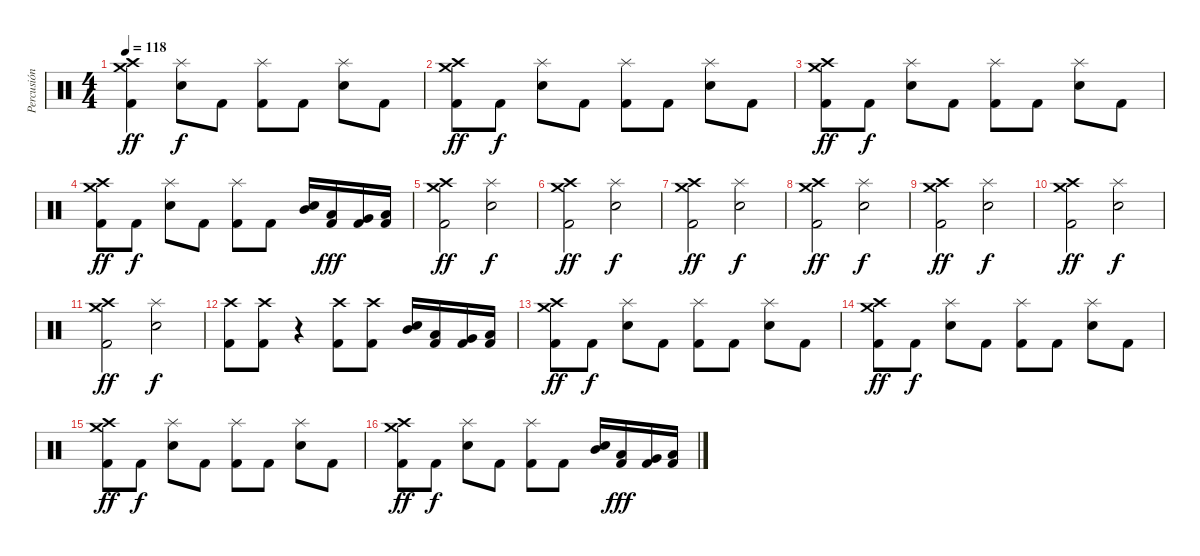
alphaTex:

\track ("Percusión" "Percusión") {instrument percussion}
\staff {score}
\articulation defaults
\ts (4 4)
\tempo 118
\clef neutral
\ks c
("Kick (hit) 2" "Crash medium (hit)" "Crash high (hit)").4{dy ff} ("Snare (hit) 2" "Splash (hit)").8{dy f} "Kick (hit) 2".8 ("Kick (hit) 2" "Splash (hit)").8 "Kick (hit) 2".8 ("Snare (hit) 2" "Splash (hit)").8 "Kick (hit) 2".8 |
("Kick (hit) 2" "Crash medium (hit)" "Crash high (hit)").8{dy ff} "Kick (hit) 2".8{dy f} ("Snare (hit) 2" "Splash (hit)").8 "Kick (hit) 2".8 ("Kick (hit) 2" "Splash (hit)").8 "Kick (hit) 2".8 ("Snare (hit) 2" "Splash (hit)").8 "Kick (hit) 2".8 |
("Kick (hit) 2" "Crash medium (hit)" "Crash high (hit)").8{dy ff} "Kick (hit) 2".8{dy f} ("Snare (hit) 2" "Splash (hit)").8 "Kick (hit) 2".8 ("Kick (hit) 2" "Splash (hit)").8 "Kick (hit) 2".8 ("Snare (hit) 2" "Splash (hit)").8 "Kick (hit) 2".8 |
("Kick (hit) 2" "Crash medium (hit)" "Crash high (hit)").8{dy ff} "Kick (hit) 2".8{dy f} ("Snare (hit) 2" "Splash (hit)").8 "Kick (hit) 2".8 ("Kick (hit) 2" "Splash (hit)").8 "Kick (hit) 2".8 ("Snare (hit) 2" "Mid Tom (hit)").16 ("Low Tom (hit)" "Kick (hit) 2").16{dy fff} ("Very Low Tom (hit)" "Kick (hit) 2").16 ("Low Floor Tom (hit)" "Kick (hit) 2").16 |
("Kick (hit) 2" "Crash medium (hit)" "Crash high (hit)").2{dy ff} ("Snare (hit) 2" "Splash (hit)").2{dy f} |
("Kick (hit) 2" "Crash medium (hit)" "Crash high (hit)").2{dy ff} ("Snare (hit) 2" "Splash (hit)").2{dy f} |
("Kick (hit) 2" "Crash medium (hit)" "Crash high (hit)").2{dy ff} ("Snare (hit) 2" "Splash (hit)").2{dy f} |
("Kick (hit) 2" "Crash medium (hit)" "Crash high (hit)").2{dy ff} ("Snare (hit) 2" "Splash (hit)").2{dy f} |
("Kick (hit) 2" "Crash medium (hit)" "Crash high (hit)").2{dy ff} ("Snare (hit) 2" "Splash (hit)").2{dy f} |
("Kick (hit) 2" "Crash medium (hit)" "Crash high (hit)").2{dy ff} ("Snare (hit) 2" "Splash (hit)").2{dy f} |
("Kick (hit) 2" "Crash medium (hit)" "Crash high (hit)").2{dy ff} ("Snare (hit) 2" "Splash (hit)").2{dy f} |
("Kick (hit) 2" "Crash high (hit)").8 ("Kick (hit) 2" "Crash high (hit)").8 r.4 ("Kick (hit) 2" "Crash high (hit)").8 ("Kick (hit) 2" "Crash high (hit)").8 ("Snare (hit) 2" "Mid Tom (hit)").16 ("Low Tom (hit)" "Kick (hit) 2").16 ("Very Low Tom (hit)" "Kick (hit) 2").16 ("Low Floor Tom (hit)" "Kick (hit) 2").16 |
("Kick (hit) 2" "Crash medium (hit)" "Crash high (hit)").8{dy ff} "Kick (hit) 2".8{dy f} ("Snare (hit) 2" "Splash (hit)").8 "Kick (hit) 2".8 ("Kick (hit) 2" "Splash (hit)").8 "Kick (hit) 2".8 ("Snare (hit) 2" "Splash (hit)").8 "Kick (hit) 2".8 |
("Kick (hit) 2" "Crash medium (hit)" "Crash high (hit)").8{dy ff} "Kick (hit) 2".8{dy f} ("Snare (hit) 2" "Splash (hit)").8 "Kick (hit) 2".8 ("Kick (hit) 2" "Splash (hit)").8 "Kick (hit) 2".8 ("Snare (hit) 2" "Splash (hit)").8 "Kick (hit) 2".8 |
("Kick (hit) 2" "Crash medium (hit)" "Crash high (hit)").8{dy ff} "Kick (hit) 2".8{dy f} ("Snare (hit) 2" "Splash (hit)").8 "Kick (hit) 2".8 ("Kick (hit) 2" "Splash (hit)").8 "Kick (hit) 2".8 ("Snare (hit) 2" "Splash (hit)").8 "Kick (hit) 2".8 |
("Kick (hit) 2" "Crash medium (hit)" "Crash high (hit)").8{dy ff} "Kick (hit) 2".8{dy f} ("Snare (hit) 2" "Splash (hit)").8 "Kick (hit) 2".8 ("Kick (hit) 2" "Splash (hit)").8 "Kick (hit) 2".8 ("Snare (hit) 2" "Mid Tom (hit)").16 ("Low Tom (hit)" "Kick (hit) 2").16{dy fff} ("Very Low Tom (hit)" "Kick (hit) 2").16 ("Low Floor Tom (hit)" "Kick (hit) 2").16
